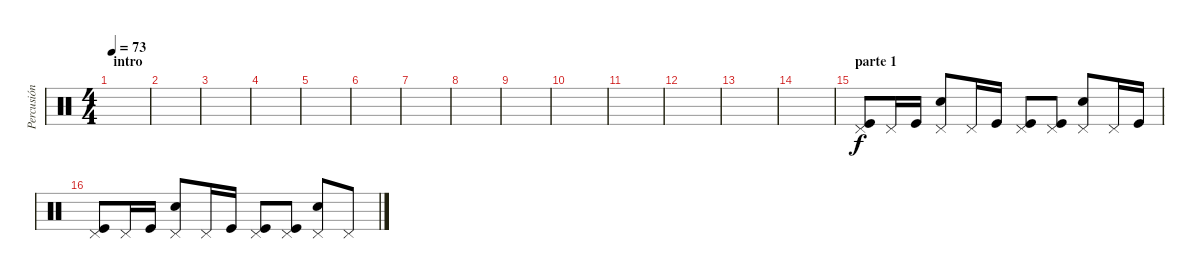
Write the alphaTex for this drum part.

\track ("Percusión" "Percusión") {instrument percussion}
\staff {score}
\articulation defaults
\ts (4 4)
\section ("" "intro")
\tempo 73
\clef neutral
\ks c
|
|
|
|
|
|
|
|
|
|
|
|
|
|
\section ("" "parte 1")
("Pedal Hi-Hat (hit)" "Kick (hit)").8 "Pedal Hi-Hat (hit)".16 "Kick (hit)".16 ("Pedal Hi-Hat (hit)" "Electric Snare (hit)").8 "Pedal Hi-Hat (hit)".16 "Kick (hit)".16 ("Pedal Hi-Hat (hit)" "Kick (hit)").8 ("Pedal Hi-Hat (hit)" "Kick (hit)").8 ("Pedal Hi-Hat (hit)" "Electric Snare (hit)").8 "Pedal Hi-Hat (hit)".16 "Kick (hit)".16 |
("Pedal Hi-Hat (hit)" "Kick (hit)").8 "Pedal Hi-Hat (hit)".16 "Kick (hit)".16 ("Pedal Hi-Hat (hit)" "Electric Snare (hit)").8 "Pedal Hi-Hat (hit)".16 "Kick (hit)".16 ("Pedal Hi-Hat (hit)" "Kick (hit)").8 ("Pedal Hi-Hat (hit)" "Kick (hit)").8 ("Pedal Hi-Hat (hit)" "Electric Snare (hit)").8 "Pedal Hi-Hat (hit)".8
